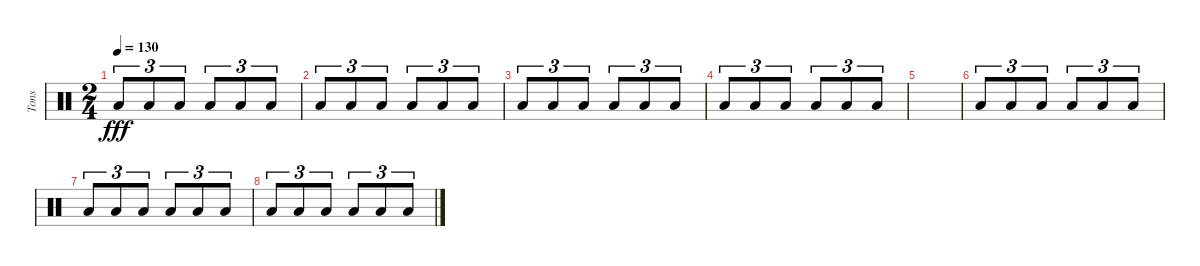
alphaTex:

\track ("Tons" "Tons") {instrument percussion}
\staff {score}
\articulation defaults
\ts (2 4)
\tempo 130
\clef neutral
\ks c "Low Floor Tom (hit)".8{tu (3 2) dy fff} "Low Floor Tom (hit)".8{tu (3 2)} "Low Floor Tom (hit)".8{tu (3 2)} "Low Floor Tom (hit)".8{tu (3 2)} "Low Floor Tom (hit)".8{tu (3 2)} "Low Floor Tom (hit)".8{tu (3 2)}
|
"Low Floor Tom (hit)".8{tu (3 2)} "Low Floor Tom (hit)".8{tu (3 2)} "Low Floor Tom (hit)".8{tu (3 2)} "Low Floor Tom (hit)".8{tu (3 2)} "Low Floor Tom (hit)".8{tu (3 2)} "Low Floor Tom (hit)".8{tu (3 2)} |
"Low Floor Tom (hit)".8{tu (3 2)} "Low Floor Tom (hit)".8{tu (3 2)} "Low Floor Tom (hit)".8{tu (3 2)} "Low Floor Tom (hit)".8{tu (3 2)} "Low Floor Tom (hit)".8{tu (3 2)} "Low Floor Tom (hit)".8{tu (3 2)} |
"Low Floor Tom (hit)".8{tu (3 2)} "Low Floor Tom (hit)".8{tu (3 2)} "Low Floor Tom (hit)".8{tu (3 2)} "Low Floor Tom (hit)".8{tu (3 2)} "Low Floor Tom (hit)".8{tu (3 2)} "Low Floor Tom (hit)".8{tu (3 2)} |
|
"Low Floor Tom (hit)".8{tu (3 2)} "Low Floor Tom (hit)".8{tu (3 2)} "Low Floor Tom (hit)".8{tu (3 2)} "Low Floor Tom (hit)".8{tu (3 2)} "Low Floor Tom (hit)".8{tu (3 2)} "Low Floor Tom (hit)".8{tu (3 2)} |
"Low Floor Tom (hit)".8{tu (3 2)} "Low Floor Tom (hit)".8{tu (3 2)} "Low Floor Tom (hit)".8{tu (3 2)} "Low Floor Tom (hit)".8{tu (3 2)} "Low Floor Tom (hit)".8{tu (3 2)} "Low Floor Tom (hit)".8{tu (3 2)} |
"Low Floor Tom (hit)".8{tu (3 2)} "Low Floor Tom (hit)".8{tu (3 2)} "Low Floor Tom (hit)".8{tu (3 2)} "Low Floor Tom (hit)".8{tu (3 2)} "Low Floor Tom (hit)".8{tu (3 2)} "Low Floor Tom (hit)".8{tu (3 2)}
